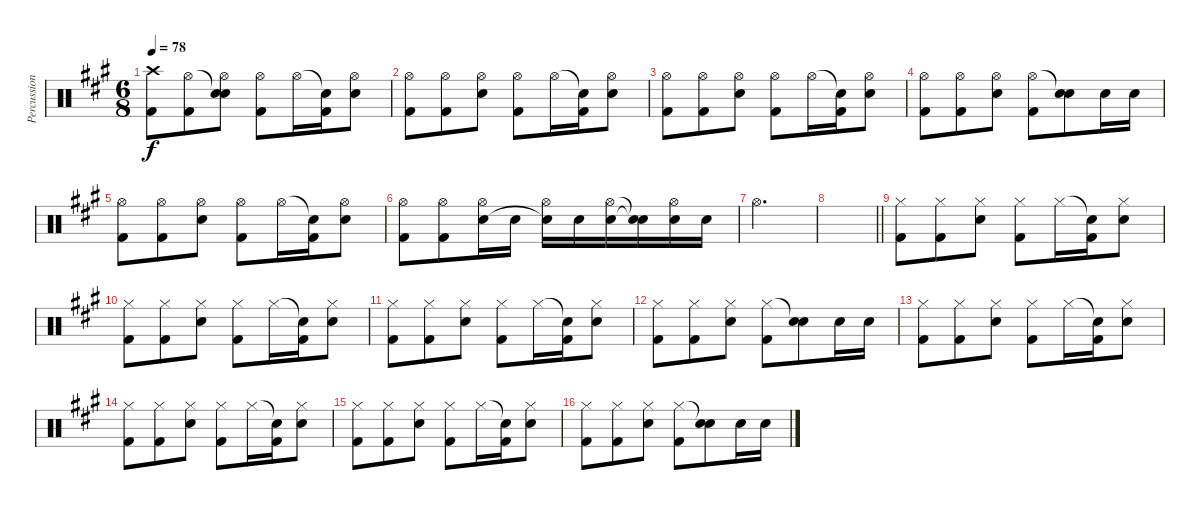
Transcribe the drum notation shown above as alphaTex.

\track ("Percussions" "Percussion") {instrument percussion}
\staff {score}
\articulation defaults
\ts (6 8)
\tempo 78
\clef neutral
\ks a
("Crash high (hit)" "Kick (hit) 2").8{dy f} ("Hi-Hat (open)" "Kick (hit) 2").8 ("Snare (hit)"{t} "Hi-Hat (open)" "Snare (hit) 2").8 ("Hi-Hat (open)" "Kick (hit) 2").8 "Hi-Hat (open)".16 ("Snare (hit)"{t} "Kick (hit) 2").16 ("Hi-Hat (open)" "Snare (hit) 2").8 |
("Hi-Hat (open)" "Kick (hit) 2").8 ("Hi-Hat (open)" "Kick (hit) 2").8 ("Hi-Hat (open)" "Snare (hit) 2").8 ("Hi-Hat (open)" "Kick (hit) 2").8 "Hi-Hat (open)".16 ("Snare (hit)"{t} "Kick (hit) 2").16 ("Hi-Hat (open)" "Snare (hit) 2").8 |
("Hi-Hat (open)" "Kick (hit) 2").8 ("Hi-Hat (open)" "Kick (hit) 2").8 ("Hi-Hat (open)" "Snare (hit) 2").8 ("Hi-Hat (open)" "Kick (hit) 2").8 "Hi-Hat (open)".16 ("Snare (hit)"{t} "Kick (hit) 2").16 ("Hi-Hat (open)" "Snare (hit) 2").8 |
("Hi-Hat (open)" "Kick (hit) 2").8 ("Hi-Hat (open)" "Kick (hit) 2").8 ("Hi-Hat (open)" "Snare (hit) 2").8 ("Hi-Hat (open)" "Kick (hit) 2").8 ("Snare (hit)"{t} "Snare (hit) 2").8 "Snare (hit) 2".16 "Snare (hit) 2".16 |
("Hi-Hat (open)" "Kick (hit) 2").8 ("Hi-Hat (open)" "Kick (hit) 2").8 ("Hi-Hat (open)" "Snare (hit) 2").8 ("Hi-Hat (open)" "Kick (hit) 2").8 "Hi-Hat (open)".16 ("Snare (hit)"{t} "Kick (hit) 2").16 ("Hi-Hat (open)" "Snare (hit) 2").8 |
("Hi-Hat (open)" "Kick (hit) 2").8 ("Hi-Hat (open)" "Kick (hit) 2").8 ("Hi-Hat (open)" "Snare (hit) 2").16 "Snare (hit) 2".16 ("Hi-Hat (open)" "Snare (hit)"{t}).16 "Snare (hit) 2".16 ("Hi-Hat (open)" "Snare (hit) 2").16 ("Snare (hit)"{t} "Snare (hit) 2"{t}).16 ("Hi-Hat (open)" "Snare (hit) 2").16 "Snare (hit) 2".16 |
"Hi-Hat (open)".2{d} |
\barLineRight lightlight
|
("Hi-Hat (closed)" "Kick (hit) 2").8 ("Hi-Hat (closed)" "Kick (hit) 2").8 ("Hi-Hat (closed)" "Snare (hit) 2").8 ("Hi-Hat (closed)" "Kick (hit) 2").8 "Hi-Hat (closed)".16 ("Snare (hit)"{t} "Kick (hit) 2").16 ("Hi-Hat (closed)" "Snare (hit) 2").8 |
("Hi-Hat (closed)" "Kick (hit) 2").8 ("Hi-Hat (closed)" "Kick (hit) 2").8 ("Hi-Hat (closed)" "Snare (hit) 2").8 ("Hi-Hat (closed)" "Kick (hit) 2").8 "Hi-Hat (closed)".16 ("Snare (hit)"{t} "Kick (hit) 2").16 ("Hi-Hat (closed)" "Snare (hit) 2").8 |
("Hi-Hat (closed)" "Kick (hit) 2").8 ("Hi-Hat (closed)" "Kick (hit) 2").8 ("Hi-Hat (closed)" "Snare (hit) 2").8 ("Hi-Hat (closed)" "Kick (hit) 2").8 "Hi-Hat (closed)".16 ("Snare (hit)"{t} "Kick (hit) 2").16 ("Hi-Hat (closed)" "Snare (hit) 2").8 |
("Hi-Hat (closed)" "Kick (hit) 2").8 ("Hi-Hat (closed)" "Kick (hit) 2").8 ("Hi-Hat (closed)" "Snare (hit) 2").8 ("Hi-Hat (closed)" "Kick (hit) 2").8 ("Snare (hit)"{t} "Snare (hit) 2").8 "Snare (hit) 2".16 "Snare (hit) 2".16 |
("Hi-Hat (closed)" "Kick (hit) 2").8 ("Hi-Hat (closed)" "Kick (hit) 2").8 ("Hi-Hat (closed)" "Snare (hit) 2").8 ("Hi-Hat (closed)" "Kick (hit) 2").8 "Hi-Hat (closed)".16 ("Snare (hit)"{t} "Kick (hit) 2").16 ("Hi-Hat (closed)" "Snare (hit) 2").8 |
("Hi-Hat (closed)" "Kick (hit) 2").8 ("Hi-Hat (closed)" "Kick (hit) 2").8 ("Hi-Hat (closed)" "Snare (hit) 2").8 ("Hi-Hat (closed)" "Kick (hit) 2").8 "Hi-Hat (closed)".16 ("Snare (hit)"{t} "Kick (hit) 2").16 ("Hi-Hat (closed)" "Snare (hit) 2").8 |
("Hi-Hat (closed)" "Kick (hit) 2").8 ("Hi-Hat (closed)" "Kick (hit) 2").8 ("Hi-Hat (closed)" "Snare (hit) 2").8 ("Hi-Hat (closed)" "Kick (hit) 2").8 "Hi-Hat (closed)".16 ("Snare (hit)"{t} "Kick (hit) 2").16 ("Hi-Hat (closed)" "Snare (hit) 2").8 |
("Hi-Hat (closed)" "Kick (hit) 2").8 ("Hi-Hat (closed)" "Kick (hit) 2").8 ("Hi-Hat (closed)" "Snare (hit) 2").8 ("Hi-Hat (closed)" "Kick (hit) 2").8 ("Snare (hit)"{t} "Snare (hit) 2").8 "Snare (hit) 2".16 "Snare (hit) 2".16
